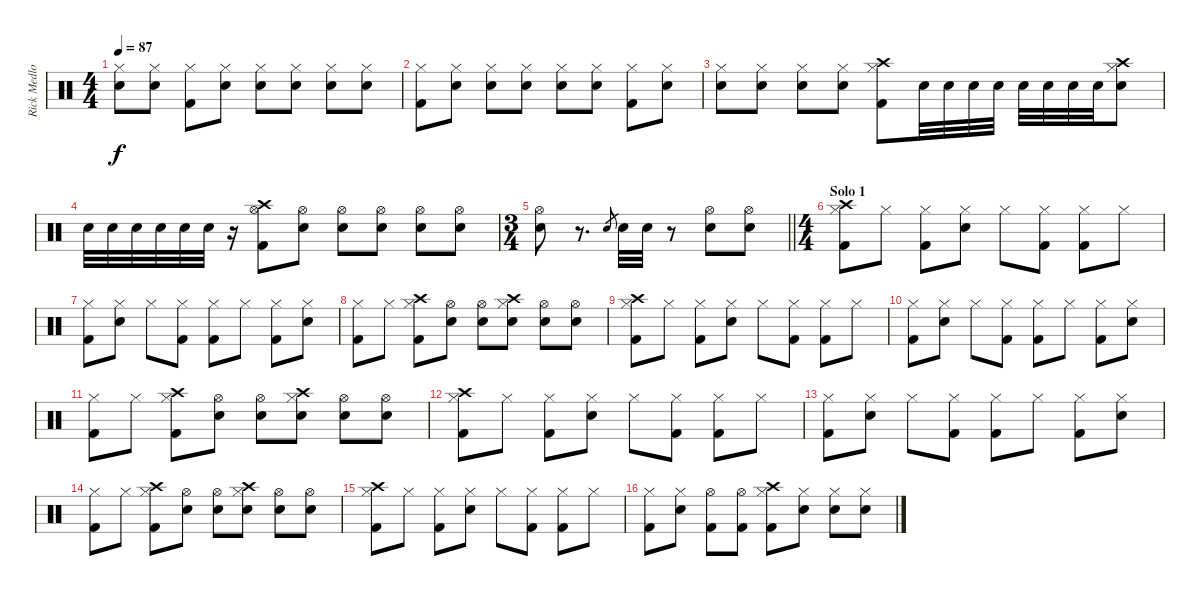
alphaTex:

\track ("Rick Medlocke" "Rick Medlo") {instrument percussion}
\staff {score}
\articulation defaults
\ts (4 4)
\tempo 87
\clef neutral
\ks c
("Hi-Hat (closed)" "Electric Snare (hit)").8{dy f} ("Hi-Hat (closed)" "Electric Snare (hit)").8 ("Hi-Hat (closed)" "Kick (hit) 2").8 ("Hi-Hat (closed)" "Electric Snare (hit)").8 ("Hi-Hat (closed)" "Electric Snare (hit)").8 ("Hi-Hat (closed)" "Snare (hit) 2").8 ("Hi-Hat (closed)" "Electric Snare (hit)").8 ("Hi-Hat (closed)" "Electric Snare (hit)").8 |
("Hi-Hat (closed)" "Kick (hit) 2").8 ("Hi-Hat (closed)" "Electric Snare (hit)").8 ("Hi-Hat (closed)" "Electric Snare (hit)").8 ("Hi-Hat (closed)" "Snare (hit) 2").8 ("Hi-Hat (closed)" "Electric Snare (hit)").8 ("Hi-Hat (closed)" "Electric Snare (hit)").8 ("Hi-Hat (closed)" "Kick (hit) 2").8 ("Hi-Hat (closed)" "Electric Snare (hit)").8 |
("Hi-Hat (closed)" "Electric Snare (hit)").8 ("Hi-Hat (closed)" "Snare (hit) 2").8 ("Hi-Hat (closed)" "Electric Snare (hit)").8 ("Hi-Hat (closed)" "Electric Snare (hit)").8 ("Crash high (hit)" "Hi-Hat (closed)" "Kick (hit) 2").8 "Electric Snare (hit)".32 "Electric Snare (hit)".32 "Electric Snare (hit)".32 "Electric Snare (hit)".32 "Electric Snare (hit)".32 "Electric Snare (hit)".32 "Electric Snare (hit)".32 "Electric Snare (hit)".32 ("Crash high (hit)" "Hi-Hat (closed)" "Snare (hit) 2").8 |
"Electric Snare (hit)".32 "Electric Snare (hit)".32 "Electric Snare (hit)".32 "Electric Snare (hit)".32 "Electric Snare (hit)".32 "Electric Snare (hit)".32 r.16 ("Crash high (hit)" "Hi-Hat (open)" "Kick (hit) 2").8 ("Hi-Hat (open)" "Electric Snare (hit)").8 ("Hi-Hat (open)" "Electric Snare (hit)").8 ("Hi-Hat (open)" "Snare (hit) 2").8 ("Hi-Hat (open)" "Electric Snare (hit)").8 ("Hi-Hat (open)" "Electric Snare (hit)").8 |
\ts (3 4)
\barLineRight lightlight
("Hi-Hat (open)" "Snare (hit) 2").8 r.8{d} "Electric Snare (hit)".8{gr} "Electric Snare (hit)".32 "Electric Snare (hit)".32 r.8 ("Hi-Hat (open)" "Electric Snare (hit)").8 ("Hi-Hat (open)" "Electric Snare (hit)").8 |
\ts (4 4)
\section ("" "Solo 1")
("Crash high (hit)" "Hi-Hat (closed)" "Kick (hit) 2").8 "Hi-Hat (closed)".8 ("Hi-Hat (closed)" "Kick (hit) 2").8 ("Hi-Hat (closed)" "Electric Snare (hit)").8 "Hi-Hat (closed)".8 ("Hi-Hat (closed)" "Kick (hit) 2").8 ("Hi-Hat (closed)" "Kick (hit) 2").8 "Hi-Hat (closed)".8 |
("Hi-Hat (closed)" "Kick (hit) 2").8 ("Hi-Hat (closed)" "Electric Snare (hit)").8 "Hi-Hat (closed)".8 ("Hi-Hat (closed)" "Kick (hit) 2").8 ("Hi-Hat (closed)" "Kick (hit) 2").8 "Hi-Hat (closed)".8 ("Hi-Hat (closed)" "Kick (hit) 2").8 ("Hi-Hat (closed)" "Electric Snare (hit)").8 |
("Hi-Hat (closed)" "Kick (hit) 2").8 "Hi-Hat (closed)".8 ("Crash high (hit)" "Hi-Hat (closed)" "Kick (hit) 2").8 ("Hi-Hat (open)" "Electric Snare (hit)").8 ("Hi-Hat (open)" "Electric Snare (hit)").8 ("Crash high (hit)" "Hi-Hat (closed)" "Snare (hit) 2").8 ("Hi-Hat (open)" "Electric Snare (hit)").8 ("Hi-Hat (open)" "Electric Snare (hit)").8 |
("Crash high (hit)" "Hi-Hat (closed)" "Kick (hit) 2").8 "Hi-Hat (closed)".8 ("Hi-Hat (closed)" "Kick (hit) 2").8 ("Hi-Hat (closed)" "Electric Snare (hit)").8 "Hi-Hat (closed)".8 ("Hi-Hat (closed)" "Kick (hit) 2").8 ("Hi-Hat (closed)" "Kick (hit) 2").8 "Hi-Hat (closed)".8 |
("Hi-Hat (closed)" "Kick (hit) 2").8 ("Hi-Hat (closed)" "Electric Snare (hit)").8 "Hi-Hat (closed)".8 ("Hi-Hat (closed)" "Kick (hit) 2").8 ("Hi-Hat (closed)" "Kick (hit) 2").8 "Hi-Hat (closed)".8 ("Hi-Hat (closed)" "Kick (hit) 2").8 ("Hi-Hat (closed)" "Electric Snare (hit)").8 |
("Hi-Hat (closed)" "Kick (hit) 2").8 "Hi-Hat (closed)".8 ("Crash high (hit)" "Hi-Hat (closed)" "Kick (hit) 2").8 ("Hi-Hat (open)" "Electric Snare (hit)").8 ("Hi-Hat (open)" "Electric Snare (hit)").8 ("Crash high (hit)" "Hi-Hat (closed)" "Snare (hit) 2").8 ("Hi-Hat (open)" "Electric Snare (hit)").8 ("Hi-Hat (open)" "Electric Snare (hit)").8 |
("Crash high (hit)" "Hi-Hat (closed)" "Kick (hit) 2").8 "Hi-Hat (closed)".8 ("Hi-Hat (closed)" "Kick (hit) 2").8 ("Hi-Hat (closed)" "Electric Snare (hit)").8 "Hi-Hat (closed)".8 ("Hi-Hat (closed)" "Kick (hit) 2").8 ("Hi-Hat (closed)" "Kick (hit) 2").8 "Hi-Hat (closed)".8 |
("Hi-Hat (closed)" "Kick (hit) 2").8 ("Hi-Hat (closed)" "Electric Snare (hit)").8 "Hi-Hat (closed)".8 ("Hi-Hat (closed)" "Kick (hit) 2").8 ("Hi-Hat (closed)" "Kick (hit) 2").8 "Hi-Hat (closed)".8 ("Hi-Hat (closed)" "Kick (hit) 2").8 ("Hi-Hat (closed)" "Electric Snare (hit)").8 |
("Hi-Hat (closed)" "Kick (hit) 2").8 "Hi-Hat (closed)".8 ("Crash high (hit)" "Hi-Hat (closed)" "Kick (hit) 2").8 ("Hi-Hat (open)" "Electric Snare (hit)").8 ("Hi-Hat (open)" "Electric Snare (hit)").8 ("Crash high (hit)" "Hi-Hat (closed)" "Snare (hit) 2").8 ("Hi-Hat (open)" "Electric Snare (hit)").8 ("Hi-Hat (open)" "Electric Snare (hit)").8 |
("Crash high (hit)" "Hi-Hat (closed)" "Kick (hit) 2").8 "Hi-Hat (closed)".8 ("Hi-Hat (closed)" "Kick (hit) 2").8 ("Hi-Hat (closed)" "Electric Snare (hit)").8 "Hi-Hat (closed)".8 ("Hi-Hat (closed)" "Kick (hit) 2").8 ("Hi-Hat (closed)" "Kick (hit) 2").8 "Hi-Hat (closed)".8 |
("Hi-Hat (closed)" "Kick (hit) 2").8 ("Hi-Hat (closed)" "Electric Snare (hit)").8 ("Hi-Hat (open)" "Kick (hit) 2").8 ("Hi-Hat (open)" "Kick (hit) 2").8 ("Crash high (hit)" "Hi-Hat (closed)" "Kick (hit) 2").8 ("Hi-Hat (closed)" "Electric Snare (hit)").8 ("Hi-Hat (closed)" "Electric Snare (hit)").8 ("Hi-Hat (closed)" "Snare (hit) 2").8
